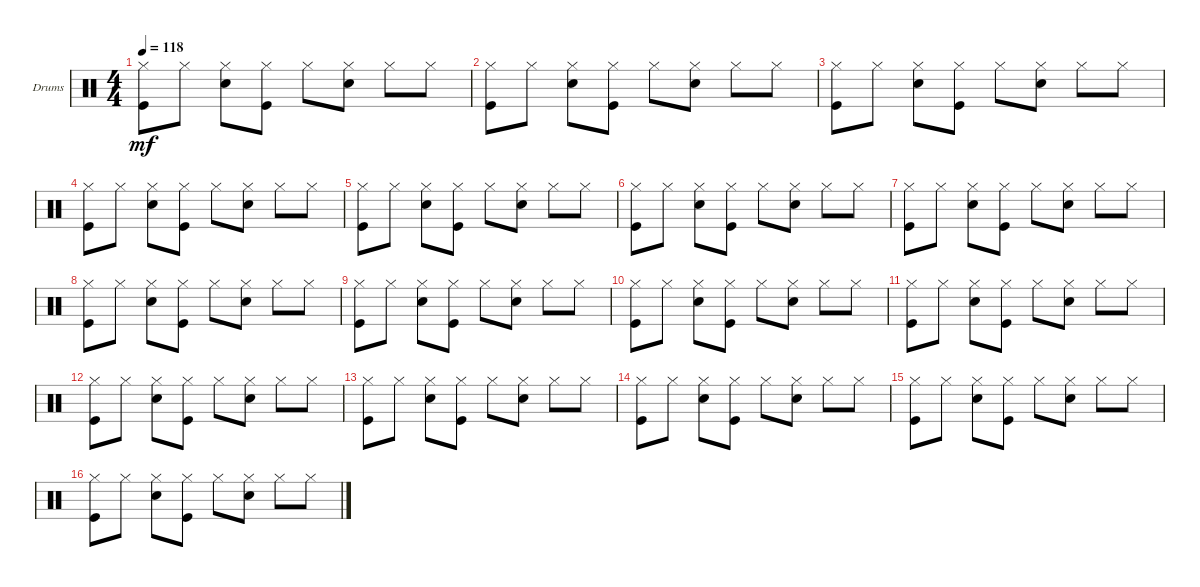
\defaultSystemsLayout 4
\bracketExtendMode groupsimilarinstruments
\firstSystemTrackNameOrientation horizontal
\otherSystemsTrackNameOrientation horizontal
\track ("Drumkit" "Drums") {instrument percussion}
\staff {score}
\articulation defaults
\ts (4 4)
\tempo 118
\clef neutral
\ks c
("Hi-Hat (closed)" "Kick (hit)").8{dy mf} "Hi-Hat (closed)".8 ("Hi-Hat (closed)" "Snare (hit) 2").8 ("Hi-Hat (closed)" "Kick (hit)").8 "Hi-Hat (closed)".8 ("Hi-Hat (closed)" "Snare (hit) 2").8 "Hi-Hat (closed)".8 "Hi-Hat (closed)".8 |
("Hi-Hat (closed)" "Kick (hit)").8 "Hi-Hat (closed)".8 ("Hi-Hat (closed)" "Snare (hit) 2").8 ("Hi-Hat (closed)" "Kick (hit)").8 "Hi-Hat (closed)".8 ("Hi-Hat (closed)" "Snare (hit) 2").8 "Hi-Hat (closed)".8 "Hi-Hat (closed)".8 |
("Hi-Hat (closed)" "Kick (hit)").8 "Hi-Hat (closed)".8 ("Hi-Hat (closed)" "Snare (hit) 2").8 ("Hi-Hat (closed)" "Kick (hit)").8 "Hi-Hat (closed)".8 ("Hi-Hat (closed)" "Snare (hit) 2").8 "Hi-Hat (closed)".8 "Hi-Hat (closed)".8 |
("Hi-Hat (closed)" "Kick (hit)").8 "Hi-Hat (closed)".8 ("Hi-Hat (closed)" "Snare (hit) 2").8 ("Hi-Hat (closed)" "Kick (hit)").8 "Hi-Hat (closed)".8 ("Hi-Hat (closed)" "Snare (hit) 2").8 "Hi-Hat (closed)".8 "Hi-Hat (closed)".8 |
("Hi-Hat (closed)" "Kick (hit)").8 "Hi-Hat (closed)".8 ("Hi-Hat (closed)" "Snare (hit) 2").8 ("Hi-Hat (closed)" "Kick (hit)").8 "Hi-Hat (closed)".8 ("Hi-Hat (closed)" "Snare (hit) 2").8 "Hi-Hat (closed)".8 "Hi-Hat (closed)".8 |
("Hi-Hat (closed)" "Kick (hit)").8 "Hi-Hat (closed)".8 ("Hi-Hat (closed)" "Snare (hit) 2").8 ("Hi-Hat (closed)" "Kick (hit)").8 "Hi-Hat (closed)".8 ("Hi-Hat (closed)" "Snare (hit) 2").8 "Hi-Hat (closed)".8 "Hi-Hat (closed)".8 |
("Hi-Hat (closed)" "Kick (hit)").8 "Hi-Hat (closed)".8 ("Hi-Hat (closed)" "Snare (hit) 2").8 ("Hi-Hat (closed)" "Kick (hit)").8 "Hi-Hat (closed)".8 ("Hi-Hat (closed)" "Snare (hit) 2").8 "Hi-Hat (closed)".8 "Hi-Hat (closed)".8 |
("Hi-Hat (closed)" "Kick (hit)").8 "Hi-Hat (closed)".8 ("Hi-Hat (closed)" "Snare (hit) 2").8 ("Hi-Hat (closed)" "Kick (hit)").8 "Hi-Hat (closed)".8 ("Hi-Hat (closed)" "Snare (hit) 2").8 "Hi-Hat (closed)".8 "Hi-Hat (closed)".8 |
("Hi-Hat (closed)" "Kick (hit)").8 "Hi-Hat (closed)".8 ("Hi-Hat (closed)" "Snare (hit) 2").8 ("Hi-Hat (closed)" "Kick (hit)").8 "Hi-Hat (closed)".8 ("Hi-Hat (closed)" "Snare (hit) 2").8 "Hi-Hat (closed)".8 "Hi-Hat (closed)".8 |
("Hi-Hat (closed)" "Kick (hit)").8 "Hi-Hat (closed)".8 ("Hi-Hat (closed)" "Snare (hit) 2").8 ("Hi-Hat (closed)" "Kick (hit)").8 "Hi-Hat (closed)".8 ("Hi-Hat (closed)" "Snare (hit) 2").8 "Hi-Hat (closed)".8 "Hi-Hat (closed)".8 |
("Hi-Hat (closed)" "Kick (hit)").8 "Hi-Hat (closed)".8 ("Hi-Hat (closed)" "Snare (hit) 2").8 ("Hi-Hat (closed)" "Kick (hit)").8 "Hi-Hat (closed)".8 ("Hi-Hat (closed)" "Snare (hit) 2").8 "Hi-Hat (closed)".8 "Hi-Hat (closed)".8 |
("Hi-Hat (closed)" "Kick (hit)").8 "Hi-Hat (closed)".8 ("Hi-Hat (closed)" "Snare (hit) 2").8 ("Hi-Hat (closed)" "Kick (hit)").8 "Hi-Hat (closed)".8 ("Hi-Hat (closed)" "Snare (hit) 2").8 "Hi-Hat (closed)".8 "Hi-Hat (closed)".8 |
("Hi-Hat (closed)" "Kick (hit)").8 "Hi-Hat (closed)".8 ("Hi-Hat (closed)" "Snare (hit) 2").8 ("Hi-Hat (closed)" "Kick (hit)").8 "Hi-Hat (closed)".8 ("Hi-Hat (closed)" "Snare (hit) 2").8 "Hi-Hat (closed)".8 "Hi-Hat (closed)".8 |
("Hi-Hat (closed)" "Kick (hit)").8 "Hi-Hat (closed)".8 ("Hi-Hat (closed)" "Snare (hit) 2").8 ("Hi-Hat (closed)" "Kick (hit)").8 "Hi-Hat (closed)".8 ("Hi-Hat (closed)" "Snare (hit) 2").8 "Hi-Hat (closed)".8 "Hi-Hat (closed)".8 |
("Hi-Hat (closed)" "Kick (hit)").8 "Hi-Hat (closed)".8 ("Hi-Hat (closed)" "Snare (hit) 2").8 ("Hi-Hat (closed)" "Kick (hit)").8 "Hi-Hat (closed)".8 ("Hi-Hat (closed)" "Snare (hit) 2").8 "Hi-Hat (closed)".8 "Hi-Hat (closed)".8 |
("Hi-Hat (closed)" "Kick (hit)").8 "Hi-Hat (closed)".8 ("Hi-Hat (closed)" "Snare (hit) 2").8 ("Hi-Hat (closed)" "Kick (hit)").8 "Hi-Hat (closed)".8 ("Hi-Hat (closed)" "Snare (hit) 2").8 "Hi-Hat (closed)".8 "Hi-Hat (closed)".8
